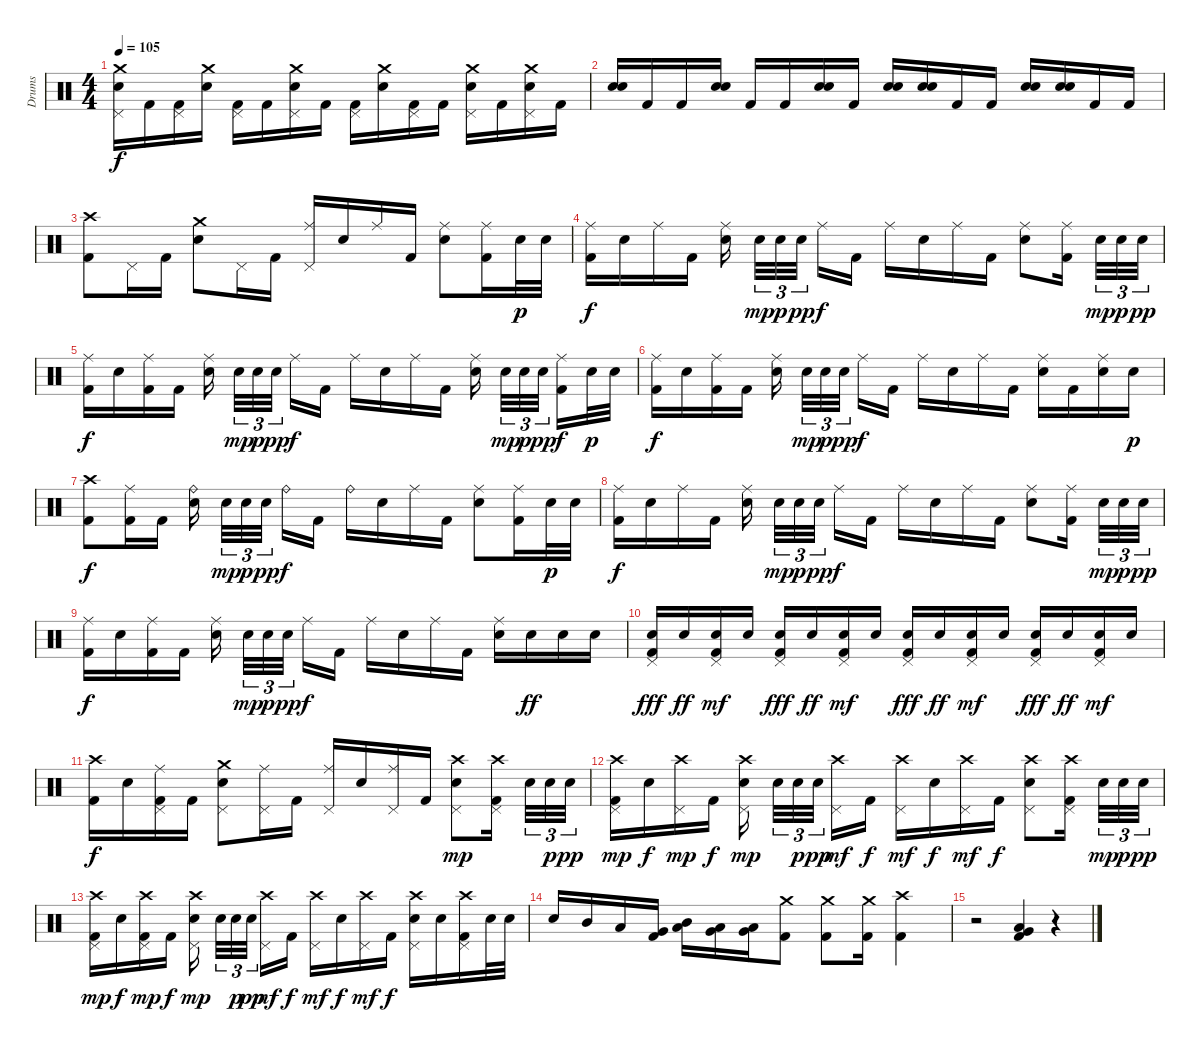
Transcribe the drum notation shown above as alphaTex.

\track ("Drums" "Drums") {instrument percussion}
\staff {score}
\articulation defaults
\ts (4 4)
\tempo 105
\clef neutral
\ks c
("Crash medium (hit)" "Pedal Hi-Hat (hit)" "Electric Snare (hit)").16{dy f} "Kick (hit) 2".16 ("Pedal Hi-Hat (hit)" "Kick (hit) 2").16 ("Crash medium (hit)" "Electric Snare (hit)").16 ("Pedal Hi-Hat (hit)" "Kick (hit) 2").16 "Kick (hit) 2".16 ("Crash medium (hit)" "Pedal Hi-Hat (hit)" "Electric Snare (hit)").16 "Kick (hit) 2".16 ("Pedal Hi-Hat (hit)" "Kick (hit) 2").16 ("Crash medium (hit)" "Electric Snare (hit)").16 ("Pedal Hi-Hat (hit)" "Kick (hit) 2").16 "Kick (hit) 2".16 ("Crash medium (hit)" "Pedal Hi-Hat (hit)" "Electric Snare (hit)").16 "Kick (hit) 2".16 ("Crash medium (hit)" "Pedal Hi-Hat (hit)" "Electric Snare (hit)").16 "Kick (hit) 2".16 |
("Electric Snare (hit)" "Electric Snare (hit)").16{bu 60} "Kick (hit) 2".16 "Kick (hit) 2".16 ("Electric Snare (hit)" "Electric Snare (hit)").16{bu 60} "Kick (hit) 2".16 "Kick (hit) 2".16 ("Electric Snare (hit)" "Electric Snare (hit)").16{bu 60} "Kick (hit) 2".16 ("Electric Snare (hit)" "Electric Snare (hit)").16{bu 60} ("Electric Snare (hit)" "Electric Snare (hit)").16{bu 60} "Kick (hit) 2".16 "Kick (hit) 2".16 ("Electric Snare (hit)" "Electric Snare (hit)").16{bu 60} ("Electric Snare (hit)" "Electric Snare (hit)").16{bu 60} "Kick (hit) 2".16 "Kick (hit) 2".16 |
("Crash high (hit)" "Kick (hit) 2").8 "Pedal Hi-Hat (hit)".16 "Kick (hit) 2".16 ("Crash medium (hit)" "Electric Snare (hit)").8 "Pedal Hi-Hat (hit)".16 "Kick (hit) 2".16 ("Ride (middle)" "Pedal Hi-Hat (hit)").16 "Electric Snare (hit)".16 "Ride (middle)".16 "Kick (hit) 2".16 ("Ride (middle)" "Electric Snare (hit)").8 ("Ride (middle)" "Kick (hit) 2").16 "Electric Snare (hit)".32{dy p} "Electric Snare (hit)".32 |
("Ride (middle)" "Kick (hit) 2").16{dy f} "Electric Snare (hit)".16 "Ride (middle)".16 "Kick (hit) 2".16 ("Ride (middle)" "Electric Snare (hit)").16{beam splitsecondary} "Electric Snare (hit)".32{tu (3 2) dy mp} "Electric Snare (hit)".32{tu (3 2) dy p} "Electric Snare (hit)".32{tu (3 2) dy pp beam splitsecondary} "Ride (middle)".16{dy f} "Kick (hit) 2".16 "Ride (middle)".16 "Electric Snare (hit)".16 "Ride (middle)".16 "Kick (hit) 2".16 ("Ride (middle)" "Electric Snare (hit)").8 ("Ride (middle)" "Kick (hit) 2").16{beam splitsecondary} "Electric Snare (hit)".32{tu (3 2) dy mp} "Electric Snare (hit)".32{tu (3 2) dy p} "Electric Snare (hit)".32{tu (3 2) dy pp} |
("Ride (middle)" "Kick (hit) 2").16{dy f} "Electric Snare (hit)".16 ("Ride (middle)" "Kick (hit) 2").16 "Kick (hit) 2".16 ("Ride (middle)" "Electric Snare (hit)").16{beam splitsecondary} "Electric Snare (hit)".32{tu (3 2) dy mp} "Electric Snare (hit)".32{tu (3 2) dy p} "Electric Snare (hit)".32{tu (3 2) dy pp beam splitsecondary} "Ride (middle)".16{dy f} "Kick (hit) 2".16 "Ride (middle)".16 "Electric Snare (hit)".16 "Ride (middle)".16 "Kick (hit) 2".16 ("Ride (middle)" "Electric Snare (hit)").16{beam splitsecondary} "Electric Snare (hit)".32{tu (3 2) dy mp} "Electric Snare (hit)".32{tu (3 2) dy p} "Electric Snare (hit)".32{tu (3 2) dy pp beam splitsecondary} ("Ride (middle)" "Kick (hit) 2").16{dy f} "Electric Snare (hit)".32{dy p} "Electric Snare (hit)".32 |
("Ride (middle)" "Kick (hit) 2").16{dy f} "Electric Snare (hit)".16 ("Ride (middle)" "Kick (hit) 2").16 "Kick (hit) 2".16 ("Ride (middle)" "Electric Snare (hit)").16{beam splitsecondary} "Electric Snare (hit)".32{tu (3 2) dy mp} "Electric Snare (hit)".32{tu (3 2) dy p} "Electric Snare (hit)".32{tu (3 2) dy pp beam splitsecondary} "Ride (middle)".16{dy f} "Kick (hit) 2".16 "Ride (middle)".16 "Electric Snare (hit)".16 "Ride (middle)".16 "Kick (hit) 2".16 ("Ride (middle)" "Electric Snare (hit)").16 "Kick (hit) 2".16 ("Ride (middle)" "Electric Snare (hit)").16 "Electric Snare (hit)".16{dy p} |
("Crash high (hit)" "Kick (hit) 2").8{dy f} ("Ride (middle)" "Kick (hit) 2").16 "Kick (hit) 2".16 ("Ride (bell)" "Electric Snare (hit)").16{beam splitsecondary} "Electric Snare (hit)".32{tu (3 2) dy mp} "Electric Snare (hit)".32{tu (3 2) dy p} "Electric Snare (hit)".32{tu (3 2) dy pp beam splitsecondary} "Ride (bell)".16{dy f} "Kick (hit) 2".16 "Ride (bell)".16 "Electric Snare (hit)".16 "Ride (middle)".16 "Kick (hit) 2".16 ("Ride (middle)" "Electric Snare (hit)").8 ("Ride (middle)" "Kick (hit) 2").16 "Electric Snare (hit)".32{dy p} "Electric Snare (hit)".32 |
("Ride (middle)" "Kick (hit) 2").16{dy f} "Electric Snare (hit)".16 "Ride (middle)".16 "Kick (hit) 2".16 ("Ride (middle)" "Electric Snare (hit)").16{beam splitsecondary} "Electric Snare (hit)".32{tu (3 2) dy mp} "Electric Snare (hit)".32{tu (3 2) dy p} "Electric Snare (hit)".32{tu (3 2) dy pp beam splitsecondary} "Ride (middle)".16{dy f} "Kick (hit) 2".16 "Ride (middle)".16 "Electric Snare (hit)".16 "Ride (middle)".16 "Kick (hit) 2".16 ("Ride (middle)" "Electric Snare (hit)").8 ("Ride (middle)" "Kick (hit) 2").16{beam splitsecondary} "Electric Snare (hit)".32{tu (3 2) dy mp} "Electric Snare (hit)".32{tu (3 2) dy p} "Electric Snare (hit)".32{tu (3 2) dy pp} |
("Ride (middle)" "Kick (hit) 2").16{dy f} "Electric Snare (hit)".16 ("Ride (middle)" "Kick (hit) 2").16 "Kick (hit) 2".16 ("Ride (middle)" "Electric Snare (hit)").16{beam splitsecondary} "Electric Snare (hit)".32{tu (3 2) dy mp} "Electric Snare (hit)".32{tu (3 2) dy p} "Electric Snare (hit)".32{tu (3 2) dy pp beam splitsecondary} "Ride (middle)".16{dy f} "Kick (hit) 2".16 "Ride (middle)".16 "Electric Snare (hit)".16 "Ride (middle)".16 "Kick (hit) 2".16 ("Ride (middle)" "Electric Snare (hit)").16 "Electric Snare (hit)".16{dy ff} "Electric Snare (hit)".16 "Electric Snare (hit)".16 |
("Pedal Hi-Hat (hit)" "Kick (hit) 2" "Electric Snare (hit)").16{dy fff} "Electric Snare (hit)".16{dy ff} ("Pedal Hi-Hat (hit)" "Kick (hit) 2" "Electric Snare (hit)").16{dy mf} "Electric Snare (hit)".16 ("Pedal Hi-Hat (hit)" "Kick (hit) 2" "Electric Snare (hit)").16{dy fff} "Electric Snare (hit)".16{dy ff} ("Pedal Hi-Hat (hit)" "Kick (hit) 2" "Electric Snare (hit)").16{dy mf} "Electric Snare (hit)".16 ("Pedal Hi-Hat (hit)" "Kick (hit) 2" "Electric Snare (hit)").16{dy fff} "Electric Snare (hit)".16{dy ff} ("Pedal Hi-Hat (hit)" "Kick (hit) 2" "Electric Snare (hit)").16{dy mf} "Electric Snare (hit)".16 ("Pedal Hi-Hat (hit)" "Kick (hit) 2" "Electric Snare (hit)").16{dy fff} "Electric Snare (hit)".16{dy ff} ("Pedal Hi-Hat (hit)" "Kick (hit) 2" "Electric Snare (hit)").16{dy mf} "Electric Snare (hit)".16 |
("Crash high (hit)" "Kick (hit) 2").16{dy f} "Electric Snare (hit)".16 ("Ride (middle)" "Pedal Hi-Hat (hit)" "Kick (hit) 2").16 "Kick (hit) 2".16 ("Crash medium (hit)" "Pedal Hi-Hat (hit)" "Electric Snare (hit)").8 ("Ride (middle)" "Pedal Hi-Hat (hit)").16 "Kick (hit) 2".16 ("Ride (middle)" "Pedal Hi-Hat (hit)").16 "Electric Snare (hit)".16 ("Ride (middle)" "Pedal Hi-Hat (hit)").16 "Kick (hit) 2".16 ("Crash high (hit)" "Pedal Hi-Hat (hit)" "Electric Snare (hit)").8{dy mp} ("Crash high (hit)" "Pedal Hi-Hat (hit)" "Kick (hit) 2").16{beam splitsecondary} "Electric Snare (hit)".32{tu (3 2)} "Electric Snare (hit)".32{tu (3 2) dy p} "Electric Snare (hit)".32{tu (3 2) dy pp} |
("Crash high (hit)" "Pedal Hi-Hat (hit)" "Kick (hit) 2").16{dy mp} "Electric Snare (hit)".16{dy f} ("Crash high (hit)" "Pedal Hi-Hat (hit)").16{dy mp} "Kick (hit) 2".16{dy f} ("Crash high (hit)" "Pedal Hi-Hat (hit)" "Electric Snare (hit)").16{dy mp beam splitsecondary} "Electric Snare (hit)".32{tu (3 2)} "Electric Snare (hit)".32{tu (3 2) dy p} "Electric Snare (hit)".32{tu (3 2) dy pp beam splitsecondary} ("Crash high (hit)" "Pedal Hi-Hat (hit)").16{dy mf} "Kick (hit) 2".16{dy f} ("Crash high (hit)" "Pedal Hi-Hat (hit)").16{dy mf} "Electric Snare (hit)".16{dy f} ("Crash high (hit)" "Pedal Hi-Hat (hit)").16{dy mf} "Kick (hit) 2".16{dy f} ("Crash high (hit)" "Pedal Hi-Hat (hit)" "Electric Snare (hit)").8 ("Crash high (hit)" "Pedal Hi-Hat (hit)" "Kick (hit) 2").16{beam splitsecondary} "Electric Snare (hit)".32{tu (3 2) dy mp} "Electric Snare (hit)".32{tu (3 2) dy p} "Electric Snare (hit)".32{tu (3 2) dy pp} |
("Crash high (hit)" "Pedal Hi-Hat (hit)" "Kick (hit) 2").16{dy mp} "Electric Snare (hit)".16{dy f} ("Crash high (hit)" "Pedal Hi-Hat (hit)" "Kick (hit) 2").16{dy mp} "Kick (hit) 2".16{dy f} ("Crash high (hit)" "Pedal Hi-Hat (hit)" "Electric Snare (hit)").16{dy mp beam splitsecondary} "Electric Snare (hit)".32{tu (3 2)} "Electric Snare (hit)".32{tu (3 2) dy p} "Electric Snare (hit)".32{tu (3 2) dy pp beam splitsecondary} ("Crash high (hit)" "Pedal Hi-Hat (hit)").16{dy mf} "Kick (hit) 2".16{dy f} ("Crash high (hit)" "Pedal Hi-Hat (hit)").16{dy mf} "Electric Snare (hit)".16{dy f} ("Crash high (hit)" "Pedal Hi-Hat (hit)").16{dy mf} "Kick (hit) 2".16{dy f} ("Crash high (hit)" "Pedal Hi-Hat (hit)" "Electric Snare (hit)").16 "Electric Snare (hit)".16 ("Crash high (hit)" "Pedal Hi-Hat (hit)" "Kick (hit) 2").16 "Electric Snare (hit)".32 "Electric Snare (hit)".32 |
"Electric Snare (hit)".16 "Mid Tom (hit)".16 "Low Tom (hit)".16 ("Very Low Tom (hit)" "Kick (hit) 2").16 ("Low Tom (hit)" "Mid Tom (hit)").16{bu 60} ("Very Low Tom (hit)" "Low Tom (hit)").16 ("Low Floor Tom (hit)" "Very Low Tom (hit)").16 ("Crash medium (hit)" "Kick (hit) 2").8 ("Crash medium (hit)" "Kick (hit) 2").8 ("Crash medium (hit)" "Kick (hit) 2").16 ("Crash high (hit)" "Kick (hit) 2").4 |
r.2 ("Low Tom (hit)" "Very Low Tom (hit)" "Kick (hit) 2").4{bd 240} r.4
